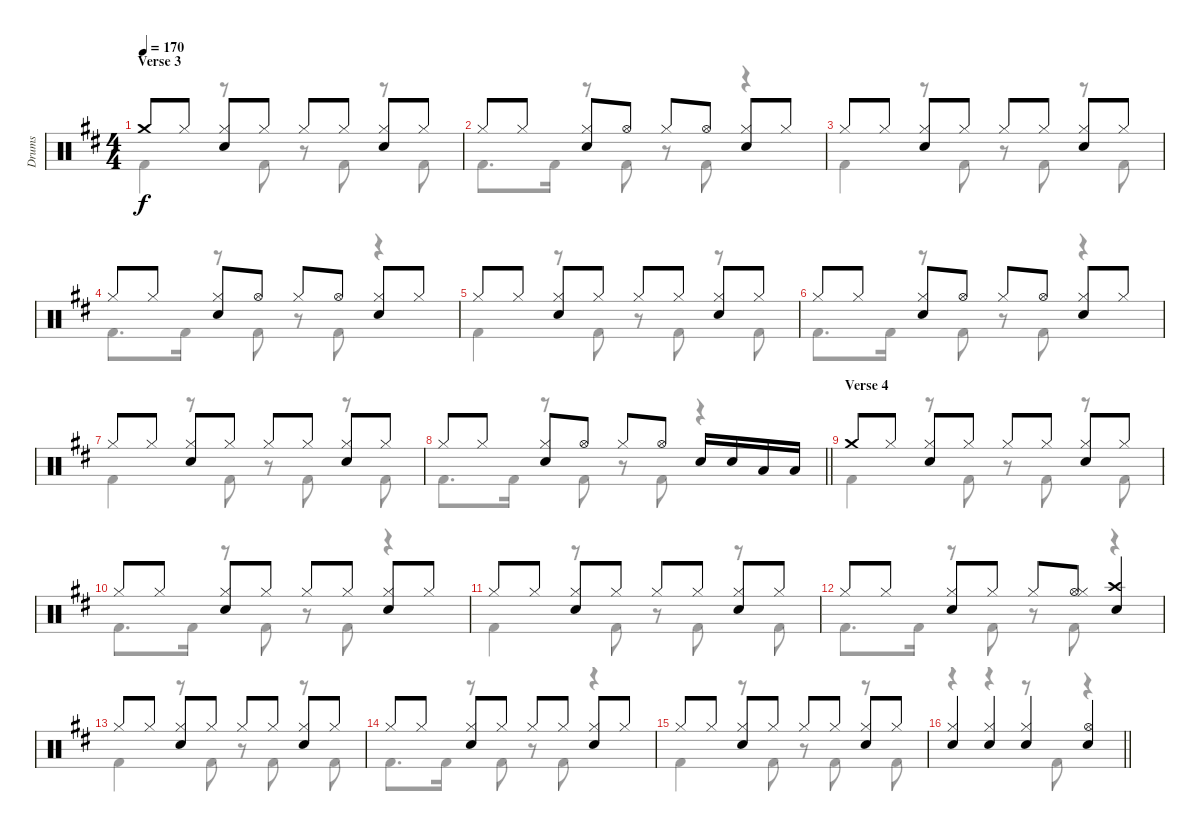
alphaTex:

\track ("Drums" "Drums") {instrument percussion}
\staff {score}
\articulation defaults
\voice
\ts (4 4)
\section ("" "Verse 3")
\tempo 170
\clef neutral
\ks d "Crash medium (hit)".8{dy f} "Hi-Hat (closed)".8
("Hi-Hat (closed)" "Snare (hit) 2").8 "Hi-Hat (closed)".8 "Hi-Hat (closed)".8 "Hi-Hat (closed)".8 ("Hi-Hat (closed)" "Snare (hit) 2").8 "Hi-Hat (closed)".8 |
"Hi-Hat (closed)".8 "Hi-Hat (closed)".8 ("Hi-Hat (closed)" "Snare (hit) 2").8 "Hi-Hat (open)".8 "Hi-Hat (closed)".8 "Hi-Hat (open)".8 ("Hi-Hat (closed)" "Snare (hit) 2").8 "Hi-Hat (closed)".8 |
"Hi-Hat (closed)".8 "Hi-Hat (closed)".8 ("Hi-Hat (closed)" "Snare (hit) 2").8 "Hi-Hat (closed)".8 "Hi-Hat (closed)".8 "Hi-Hat (closed)".8 ("Hi-Hat (closed)" "Snare (hit) 2").8 "Hi-Hat (closed)".8 |
"Hi-Hat (closed)".8 "Hi-Hat (closed)".8 ("Hi-Hat (closed)" "Snare (hit) 2").8 "Hi-Hat (open)".8 "Hi-Hat (closed)".8 "Hi-Hat (open)".8 ("Hi-Hat (closed)" "Snare (hit) 2").8 "Hi-Hat (closed)".8 |
"Hi-Hat (closed)".8 "Hi-Hat (closed)".8 ("Hi-Hat (closed)" "Snare (hit) 2").8 "Hi-Hat (closed)".8 "Hi-Hat (closed)".8 "Hi-Hat (closed)".8 ("Hi-Hat (closed)" "Snare (hit) 2").8 "Hi-Hat (closed)".8 |
"Hi-Hat (closed)".8 "Hi-Hat (closed)".8 ("Hi-Hat (closed)" "Snare (hit) 2").8 "Hi-Hat (open)".8 "Hi-Hat (closed)".8 "Hi-Hat (open)".8 ("Hi-Hat (closed)" "Snare (hit) 2").8 "Hi-Hat (closed)".8 |
"Hi-Hat (closed)".8 "Hi-Hat (closed)".8 ("Hi-Hat (closed)" "Snare (hit) 2").8 "Hi-Hat (closed)".8 "Hi-Hat (closed)".8 "Hi-Hat (closed)".8 ("Hi-Hat (closed)" "Snare (hit) 2").8 "Hi-Hat (closed)".8 |
\barLineRight lightlight "Hi-Hat (closed)".8 "Hi-Hat (closed)".8
("Hi-Hat (closed)" "Snare (hit) 2").8 "Hi-Hat (open)".8 "Hi-Hat (closed)".8 "Hi-Hat (open)".8 "Snare (hit) 2".16 "Snare (hit) 2".16 "Low Tom (hit)".16 "Low Tom (hit)".16 |
\section ("" "Verse 4")
"Crash medium (hit)".8 "Hi-Hat (closed)".8 ("Hi-Hat (closed)" "Snare (hit) 2").8 "Hi-Hat (closed)".8 "Hi-Hat (closed)".8 "Hi-Hat (closed)".8 ("Hi-Hat (closed)" "Snare (hit) 2").8 "Hi-Hat (closed)".8 |
"Hi-Hat (closed)".8 "Hi-Hat (closed)".8 ("Hi-Hat (closed)" "Snare (hit) 2").8 "Hi-Hat (closed)".8 "Hi-Hat (closed)".8 "Hi-Hat (closed)".8 ("Hi-Hat (closed)" "Snare (hit) 2").8 "Hi-Hat (closed)".8 |
"Hi-Hat (closed)".8 "Hi-Hat (closed)".8 ("Hi-Hat (closed)" "Snare (hit) 2").8 "Hi-Hat (closed)".8 "Hi-Hat (closed)".8 "Hi-Hat (closed)".8 ("Hi-Hat (closed)" "Snare (hit) 2").8 "Hi-Hat (closed)".8 |
"Hi-Hat (closed)".8 "Hi-Hat (closed)".8 ("Hi-Hat (closed)" "Snare (hit) 2").8 "Hi-Hat (closed)".8 "Hi-Hat (closed)".8 ("Hi-Hat (open)" "Hi-Hat (closed)").8 ("Crash high (hit)" "Snare (hit) 2").4 |
"Hi-Hat (closed)".8 "Hi-Hat (closed)".8 ("Hi-Hat (closed)" "Snare (hit) 2").8 "Hi-Hat (closed)".8 "Hi-Hat (closed)".8 "Hi-Hat (closed)".8 ("Hi-Hat (closed)" "Snare (hit) 2").8 "Hi-Hat (closed)".8 |
"Hi-Hat (closed)".8 "Hi-Hat (closed)".8 ("Hi-Hat (closed)" "Snare (hit) 2").8 "Hi-Hat (closed)".8 "Hi-Hat (closed)".8 "Hi-Hat (closed)".8 ("Hi-Hat (closed)" "Snare (hit) 2").8 "Hi-Hat (closed)".8 |
"Hi-Hat (closed)".8 "Hi-Hat (closed)".8 ("Hi-Hat (closed)" "Snare (hit) 2").8 "Hi-Hat (closed)".8 "Hi-Hat (closed)".8 "Hi-Hat (closed)".8 ("Hi-Hat (closed)" "Snare (hit) 2").8 "Hi-Hat (closed)".8 |
\barLineRight lightlight
("Hi-Hat (closed)" "Snare (hit) 2").4 ("Hi-Hat (closed)" "Snare (hit) 2").4 ("Hi-Hat (closed)" "Snare (hit) 2").4 ("Hi-Hat (open)" "Snare (hit) 2").4
\voice
\clef neutral
\ottava regular
\simile none
\ks d "Kick (hit) 2".4{dy f}
r.8 "Kick (hit) 2".8 r.8 "Kick (hit) 2".8 r.8 "Kick (hit) 2".8 |
"Kick (hit) 2".8{d} "Kick (hit) 2".16 r.8 "Kick (hit) 2".8 r.8 "Kick (hit) 2".8 r.4 |
"Kick (hit) 2".4 r.8 "Kick (hit) 2".8 r.8 "Kick (hit) 2".8 r.8 "Kick (hit) 2".8 |
"Kick (hit) 2".8{d} "Kick (hit) 2".16 r.8 "Kick (hit) 2".8 r.8 "Kick (hit) 2".8 r.4 |
"Kick (hit) 2".4 r.8 "Kick (hit) 2".8 r.8 "Kick (hit) 2".8 r.8 "Kick (hit) 2".8 |
"Kick (hit) 2".8{d} "Kick (hit) 2".16 r.8 "Kick (hit) 2".8 r.8 "Kick (hit) 2".8 r.4 |
"Kick (hit) 2".4 r.8 "Kick (hit) 2".8 r.8 "Kick (hit) 2".8 r.8 "Kick (hit) 2".8 |
\barLineRight lightlight "Kick (hit) 2".8{d} "Kick (hit) 2".16
r.8 "Kick (hit) 2".8 r.8 "Kick (hit) 2".8 r.4 |
"Kick (hit) 2".4 r.8 "Kick (hit) 2".8 r.8 "Kick (hit) 2".8 r.8 "Kick (hit) 2".8 |
"Kick (hit) 2".8{d} "Kick (hit) 2".16 r.8 "Kick (hit) 2".8 r.8 "Kick (hit) 2".8 r.4 |
"Kick (hit) 2".4 r.8 "Kick (hit) 2".8 r.8 "Kick (hit) 2".8 r.8 "Kick (hit) 2".8 |
"Kick (hit) 2".8{d} "Kick (hit) 2".16 r.8 "Kick (hit) 2".8 r.8 "Kick (hit) 2".8 r.4 |
"Kick (hit) 2".4 r.8 "Kick (hit) 2".8 r.8 "Kick (hit) 2".8 r.8 "Kick (hit) 2".8 |
"Kick (hit) 2".8{d} "Kick (hit) 2".16 r.8 "Kick (hit) 2".8 r.8 "Kick (hit) 2".8 r.4 |
"Kick (hit) 2".4 r.8 "Kick (hit) 2".8 r.8 "Kick (hit) 2".8 r.8 "Kick (hit) 2".8 |
\barLineRight lightlight
r.4 r.4 r.8 "Kick (hit) 2".8 r.4
